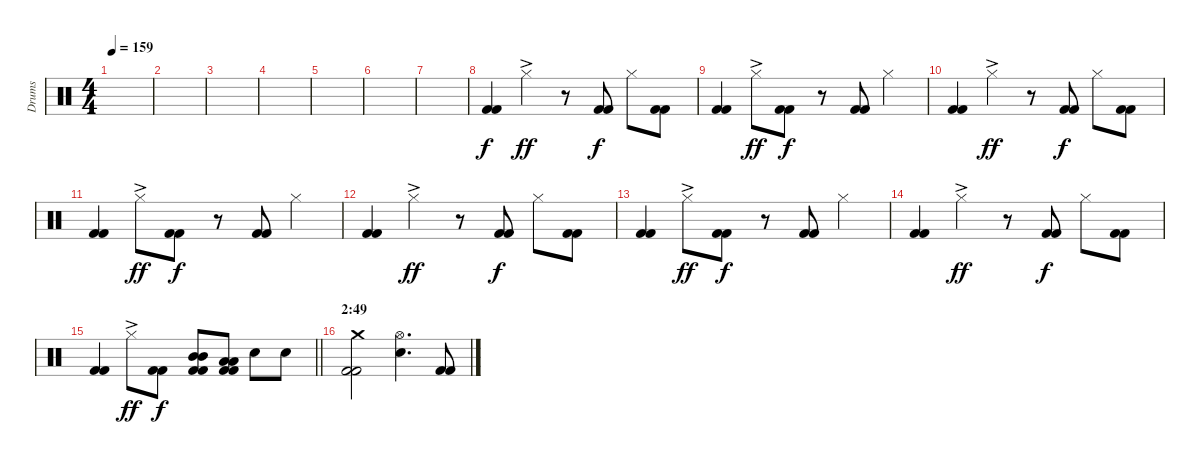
\track ("Drums" "Drums") {instrument percussion}
\staff {score}
\articulation defaults
\ts (4 4)
\tempo 159
\clef neutral
\ks c
|
|
|
|
|
|
|
("Kick (hit) 2" "Kick (hit) 2").4 "Hi-Hat (closed)"{ac}.4{dy ff} r.8 ("Kick (hit) 2" "Kick (hit) 2").8{dy f} "Hi-Hat (closed)".8 ("Kick (hit) 2" "Kick (hit) 2").8 |
("Kick (hit) 2" "Kick (hit) 2").4 "Hi-Hat (closed)"{ac}.8{dy ff} ("Kick (hit) 2" "Kick (hit) 2").8{dy f} r.8 ("Kick (hit) 2" "Kick (hit) 2").8 "Hi-Hat (closed)".4 |
("Kick (hit) 2" "Kick (hit) 2").4 "Hi-Hat (closed)"{ac}.4{dy ff} r.8 ("Kick (hit) 2" "Kick (hit) 2").8{dy f} "Hi-Hat (closed)".8 ("Kick (hit) 2" "Kick (hit) 2").8 |
("Kick (hit) 2" "Kick (hit) 2").4 "Hi-Hat (closed)"{ac}.8{dy ff} ("Kick (hit) 2" "Kick (hit) 2").8{dy f} r.8 ("Kick (hit) 2" "Kick (hit) 2").8 "Hi-Hat (closed)".4 |
("Kick (hit) 2" "Kick (hit) 2").4 "Hi-Hat (closed)"{ac}.4{dy ff} r.8 ("Kick (hit) 2" "Kick (hit) 2").8{dy f} "Hi-Hat (closed)".8 ("Kick (hit) 2" "Kick (hit) 2").8 |
("Kick (hit) 2" "Kick (hit) 2").4 "Hi-Hat (closed)"{ac}.8{dy ff} ("Kick (hit) 2" "Kick (hit) 2").8{dy f} r.8 ("Kick (hit) 2" "Kick (hit) 2").8 "Hi-Hat (closed)".4 |
("Kick (hit) 2" "Kick (hit) 2").4 "Hi-Hat (closed)"{ac}.4{dy ff} r.8 ("Kick (hit) 2" "Kick (hit) 2").8{dy f} "Hi-Hat (closed)".8 ("Kick (hit) 2" "Kick (hit) 2").8 |
\barLineRight lightlight
("Kick (hit) 2" "Kick (hit) 2").4 "Hi-Hat (closed)"{ac}.8{dy ff} ("Kick (hit) 2" "Kick (hit) 2").8{dy f} ("Mid Tom (hit)" "Mid Tom (hit)" "Kick (hit) 2" "Kick (hit) 2").8 ("Low Tom (hit)" "Low Tom (hit)" "Kick (hit) 2" "Kick (hit) 2").8 "Electric Snare (hit)".8 "Electric Snare (hit)".8 |
\section ("" "2:49")
("Crash medium (hit)" "Kick (hit) 2" "Kick (hit) 2").2 ("Hi-Hat (open)" "Electric Snare (hit)").4{d} ("Kick (hit) 2" "Kick (hit) 2").8
